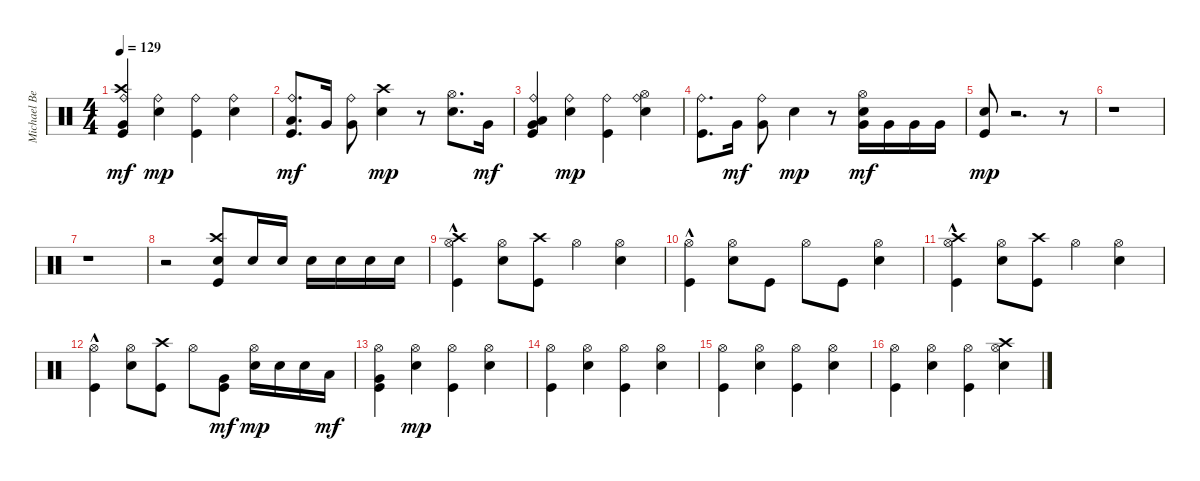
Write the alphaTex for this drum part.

\track ("Michael Beinham" "Michael Be") {instrument percussion}
\staff {score}
\articulation defaults
\ts (4 4)
\tempo 129
\clef neutral
\ks c
("Kick (hit)" "Ride (bell)" "Crash high (hit)" "Very Low Tom (hit)").4{dy mf} ("Snare (hit) 2" "Ride (bell)").4{dy mp} ("Kick (hit)" "Ride (bell)").4 ("Snare (hit) 2" "Ride (bell)").4 |
("Kick (hit)" "Ride (bell)" "Low Tom (hit)").8{d dy mf} "Very Low Tom (hit)".16 ("Ride (bell)" "Very Low Tom (hit)").8 ("Snare (hit) 2" "Crash high (hit)").4{dy mp} r.8 ("Snare (hit) 2" "Hi-Hat (open)").8{d} "Very Low Tom (hit)".16{dy mf} |
("Kick (hit)" "Ride (bell)" "Very Low Tom (hit)" "Low Tom (hit)").4 ("Snare (hit) 2" "Ride (bell)").4{dy mp} ("Kick (hit)" "Ride (bell)").4 ("Snare (hit) 2" "Hi-Hat (open)" "Ride (bell)").4 |
("Kick (hit)" "Ride (bell)").8{d} "Very Low Tom (hit)".16{dy mf} ("Ride (bell)" "Very Low Tom (hit)").8 "Snare (hit) 2".4{dy mp} r.8 ("Snare (hit) 2" "Hi-Hat (open)" "Very Low Tom (hit)").16{dy mf} "Very Low Tom (hit)".16 "Very Low Tom (hit)".16 "Very Low Tom (hit)".16 |
("Kick (hit)" "Snare (hit) 2").8{dy mp} r.2{d} r.8 |
r.1 |
r.1 |
r.2 ("Kick (hit)" "Snare (hit) 2" "Crash high (hit)").8 "Snare (hit) 2".16 "Snare (hit) 2".16 "Snare (hit) 2".16 "Snare (hit) 2".16 "Snare (hit) 2".16 "Snare (hit) 2".16 |
("Kick (hit)"{hac} "Hi-Hat (open)" "Crash high (hit)"{hac}).4 ("Snare (hit) 2" "Hi-Hat (open)").8 ("Kick (hit)" "Crash high (hit)").8 "Hi-Hat (open)".4 ("Snare (hit) 2" "Hi-Hat (open)").4 |
("Kick (hit)"{hac} "Hi-Hat (open)").4 ("Snare (hit) 2" "Hi-Hat (open)").8 "Kick (hit)".8 "Hi-Hat (open)".8 "Kick (hit)".8 ("Snare (hit) 2" "Hi-Hat (open)").4 |
("Kick (hit)"{hac} "Hi-Hat (open)" "Crash high (hit)"{hac}).4 ("Snare (hit) 2" "Hi-Hat (open)").8 ("Kick (hit)" "Crash high (hit)").8 "Hi-Hat (open)".4 ("Snare (hit) 2" "Hi-Hat (open)").4 |
("Kick (hit)"{hac} "Hi-Hat (open)").4 ("Snare (hit) 2" "Hi-Hat (open)").8 ("Kick (hit)" "Crash high (hit)").8 "Hi-Hat (open)".8 ("Kick (hit)" "Very Low Tom (hit)").8{dy mf} ("Snare (hit) 2" "Hi-Hat (open)").16{dy mp} "Snare (hit) 2".16 "Snare (hit) 2".16 "Low Tom (hit)".16{dy mf} |
("Kick (hit)" "Hi-Hat (open)" "Very Low Tom (hit)").4 ("Snare (hit) 2" "Hi-Hat (open)").4{dy mp} ("Kick (hit)" "Hi-Hat (open)").4 ("Snare (hit) 2" "Hi-Hat (open)").4 |
("Kick (hit)" "Hi-Hat (open)").4 ("Snare (hit) 2" "Hi-Hat (open)").4 ("Kick (hit)" "Hi-Hat (open)").4 ("Snare (hit) 2" "Hi-Hat (open)").4 |
("Kick (hit)" "Hi-Hat (open)").4 ("Snare (hit) 2" "Hi-Hat (open)").4 ("Kick (hit)" "Hi-Hat (open)").4 ("Snare (hit) 2" "Hi-Hat (open)").4 |
("Kick (hit)" "Hi-Hat (open)").4 ("Snare (hit) 2" "Hi-Hat (open)").4 ("Kick (hit)" "Hi-Hat (open)").4 ("Snare (hit) 2" "Hi-Hat (open)" "Crash high (hit)").4
